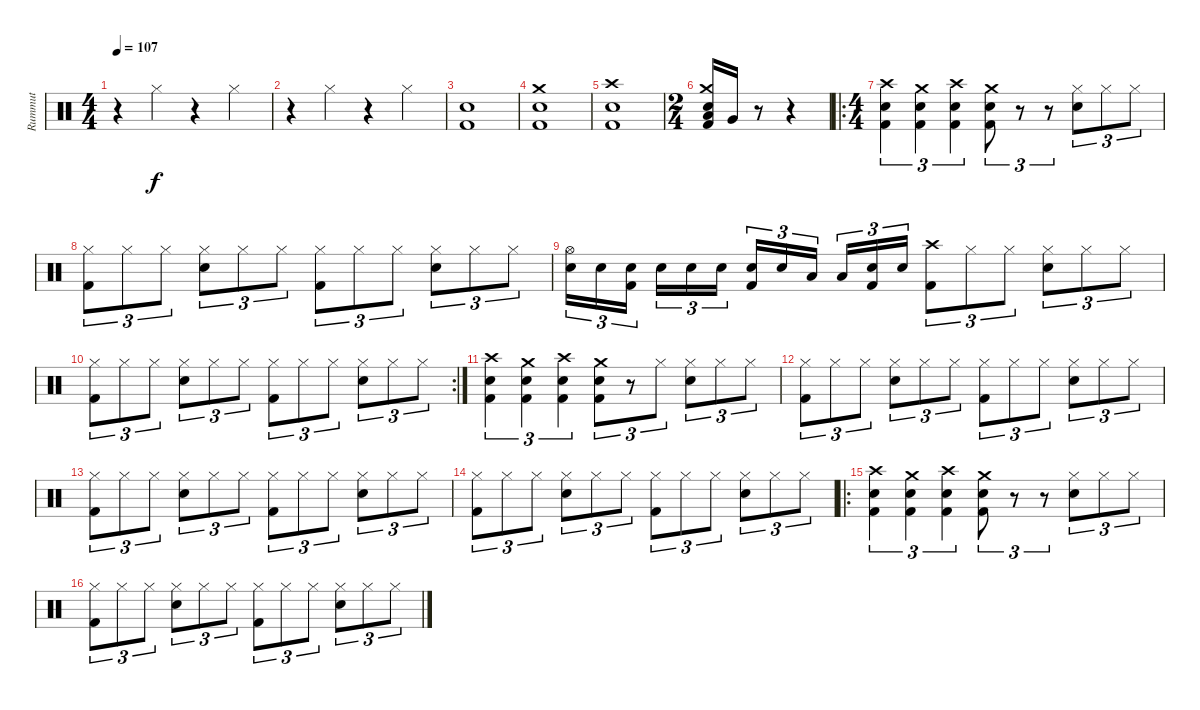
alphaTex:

\track ("Rummut" "Rummut") {instrument percussion}
\staff {score}
\articulation defaults
\ts (4 4)
\tempo 107
\clef neutral
\ks c
r.4{dy f} "Hi-Hat (closed)".4 r.4 "Hi-Hat (closed)".4 |
r.4 "Hi-Hat (closed)".4 r.4 "Hi-Hat (closed)".4 |
("Snare (hit) 2" "Kick (hit) 2").1{volume 13} |
("Crash medium (hit)" "Snare (hit) 2" "Kick (hit) 2").1 |
("Crash high (hit)" "Snare (hit) 2" "Kick (hit) 2").1 |
\ts (2 4)
("Crash medium (hit)" "Low Tom (hit)" "Snare (hit) 2" "Kick (hit) 2").16 "Very Low Tom (hit)".16 r.8 r.4 |
\ro
\ts (4 4)
("Crash high (hit)" "Snare (hit) 2" "Kick (hit) 2").4{tu (3 2)} ("Crash medium (hit)" "Snare (hit) 2" "Kick (hit) 2").4{tu (3 2)} ("Crash high (hit)" "Snare (hit) 2" "Kick (hit) 2").4{tu (3 2)} ("Crash medium (hit)" "Snare (hit) 2" "Kick (hit) 2").8{tu (3 2)} r.8{tu (3 2)} r.8{tu (3 2)} ("Hi-Hat (closed)" "Snare (hit) 2").8{tu (3 2)} "Hi-Hat (closed)".8{tu (3 2)} "Hi-Hat (closed)".8{tu (3 2)} |
("Hi-Hat (closed)" "Kick (hit) 2").8{tu (3 2)} "Hi-Hat (closed)".8{tu (3 2)} "Hi-Hat (closed)".8{tu (3 2)} ("Hi-Hat (closed)" "Snare (hit) 2").8{tu (3 2)} "Hi-Hat (closed)".8{tu (3 2)} "Hi-Hat (closed)".8{tu (3 2)} ("Hi-Hat (closed)" "Kick (hit) 2").8{tu (3 2)} "Hi-Hat (closed)".8{tu (3 2)} "Hi-Hat (closed)".8{tu (3 2)} ("Hi-Hat (closed)" "Snare (hit) 2").8{tu (3 2)} "Hi-Hat (closed)".8{tu (3 2)} "Hi-Hat (closed)".8{tu (3 2)} |
("Hi-Hat (open)" "Snare (hit) 2").16{tu (3 2)} "Snare (hit)".16{tu (3 2)} ("Snare (hit)" "Kick (hit) 2").16{tu (3 2)} "Snare (hit)".16{tu (3 2)} "Snare (hit) 2".16{tu (3 2)} "Snare (hit)".16{tu (3 2)} ("Snare (hit)" "Kick (hit) 2").16{tu (3 2)} "Snare (hit)".16{tu (3 2)} "Low Tom (hit)".16{tu (3 2)} "Low Tom (hit)".16{tu (3 2)} ("Snare (hit)" "Kick (hit) 2").16{tu (3 2)} "Snare (hit)".16{tu (3 2)} ("Crash high (hit)" "Kick (hit) 2").8{tu (3 2)} "Hi-Hat (closed)".8{tu (3 2)} "Hi-Hat (closed)".8{tu (3 2)} ("Hi-Hat (closed)" "Snare (hit) 2").8{tu (3 2)} "Hi-Hat (closed)".8{tu (3 2)} "Hi-Hat (closed)".8{tu (3 2)} |
\rc 2
("Hi-Hat (closed)" "Kick (hit) 2").8{tu (3 2)} "Hi-Hat (closed)".8{tu (3 2)} "Hi-Hat (closed)".8{tu (3 2)} ("Hi-Hat (closed)" "Snare (hit) 2").8{tu (3 2)} "Hi-Hat (closed)".8{tu (3 2)} "Hi-Hat (closed)".8{tu (3 2)} ("Hi-Hat (closed)" "Kick (hit) 2").8{tu (3 2)} "Hi-Hat (closed)".8{tu (3 2)} "Hi-Hat (closed)".8{tu (3 2)} ("Hi-Hat (closed)" "Snare (hit) 2").8{tu (3 2)} "Hi-Hat (closed)".8{tu (3 2)} "Hi-Hat (closed)".8{tu (3 2)} |
("Crash high (hit)" "Snare (hit) 2" "Kick (hit) 2").4{tu (3 2)} ("Crash medium (hit)" "Snare (hit) 2" "Kick (hit) 2").4{tu (3 2)} ("Crash high (hit)" "Snare (hit) 2" "Kick (hit) 2").4{tu (3 2)} ("Crash medium (hit)" "Snare (hit) 2" "Kick (hit) 2").8{tu (3 2)} r.8{tu (3 2)} "Hi-Hat (closed)".8{tu (3 2)} ("Hi-Hat (closed)" "Snare (hit) 2").8{tu (3 2)} "Hi-Hat (closed)".8{tu (3 2)} "Hi-Hat (closed)".8{tu (3 2)} |
("Hi-Hat (closed)" "Kick (hit) 2").8{tu (3 2)} "Hi-Hat (closed)".8{tu (3 2)} "Hi-Hat (closed)".8{tu (3 2)} ("Hi-Hat (closed)" "Snare (hit) 2").8{tu (3 2)} "Hi-Hat (closed)".8{tu (3 2)} "Hi-Hat (closed)".8{tu (3 2)} ("Hi-Hat (closed)" "Kick (hit) 2").8{tu (3 2)} "Hi-Hat (closed)".8{tu (3 2)} "Hi-Hat (closed)".8{tu (3 2)} ("Hi-Hat (closed)" "Snare (hit) 2").8{tu (3 2)} "Hi-Hat (closed)".8{tu (3 2)} "Hi-Hat (closed)".8{tu (3 2)} |
("Hi-Hat (closed)" "Kick (hit) 2").8{tu (3 2)} "Hi-Hat (closed)".8{tu (3 2)} "Hi-Hat (closed)".8{tu (3 2)} ("Hi-Hat (closed)" "Snare (hit) 2").8{tu (3 2)} "Hi-Hat (closed)".8{tu (3 2)} "Hi-Hat (closed)".8{tu (3 2)} ("Hi-Hat (closed)" "Kick (hit) 2").8{tu (3 2)} "Hi-Hat (closed)".8{tu (3 2)} "Hi-Hat (closed)".8{tu (3 2)} ("Hi-Hat (closed)" "Snare (hit) 2").8{tu (3 2)} "Hi-Hat (closed)".8{tu (3 2)} "Hi-Hat (closed)".8{tu (3 2)} |
("Hi-Hat (closed)" "Kick (hit) 2").8{tu (3 2)} "Hi-Hat (closed)".8{tu (3 2)} "Hi-Hat (closed)".8{tu (3 2)} ("Hi-Hat (closed)" "Snare (hit) 2").8{tu (3 2)} "Hi-Hat (closed)".8{tu (3 2)} "Hi-Hat (closed)".8{tu (3 2)} ("Hi-Hat (closed)" "Kick (hit) 2").8{tu (3 2)} "Hi-Hat (closed)".8{tu (3 2)} "Hi-Hat (closed)".8{tu (3 2)} ("Hi-Hat (closed)" "Snare (hit) 2").8{tu (3 2)} "Hi-Hat (closed)".8{tu (3 2)} "Hi-Hat (closed)".8{tu (3 2)} |
\ro
("Crash high (hit)" "Snare (hit) 2" "Kick (hit) 2").4{tu (3 2)} ("Crash medium (hit)" "Snare (hit) 2" "Kick (hit) 2").4{tu (3 2)} ("Crash high (hit)" "Snare (hit) 2" "Kick (hit) 2").4{tu (3 2)} ("Crash medium (hit)" "Snare (hit) 2" "Kick (hit) 2").8{tu (3 2)} r.8{tu (3 2)} r.8{tu (3 2)} ("Hi-Hat (closed)" "Snare (hit) 2").8{tu (3 2)} "Hi-Hat (closed)".8{tu (3 2)} "Hi-Hat (closed)".8{tu (3 2)} |
("Hi-Hat (closed)" "Kick (hit) 2").8{tu (3 2)} "Hi-Hat (closed)".8{tu (3 2)} "Hi-Hat (closed)".8{tu (3 2)} ("Hi-Hat (closed)" "Snare (hit) 2").8{tu (3 2)} "Hi-Hat (closed)".8{tu (3 2)} "Hi-Hat (closed)".8{tu (3 2)} ("Hi-Hat (closed)" "Kick (hit) 2").8{tu (3 2)} "Hi-Hat (closed)".8{tu (3 2)} "Hi-Hat (closed)".8{tu (3 2)} ("Hi-Hat (closed)" "Snare (hit) 2").8{tu (3 2)} "Hi-Hat (closed)".8{tu (3 2)} "Hi-Hat (closed)".8{tu (3 2)}
